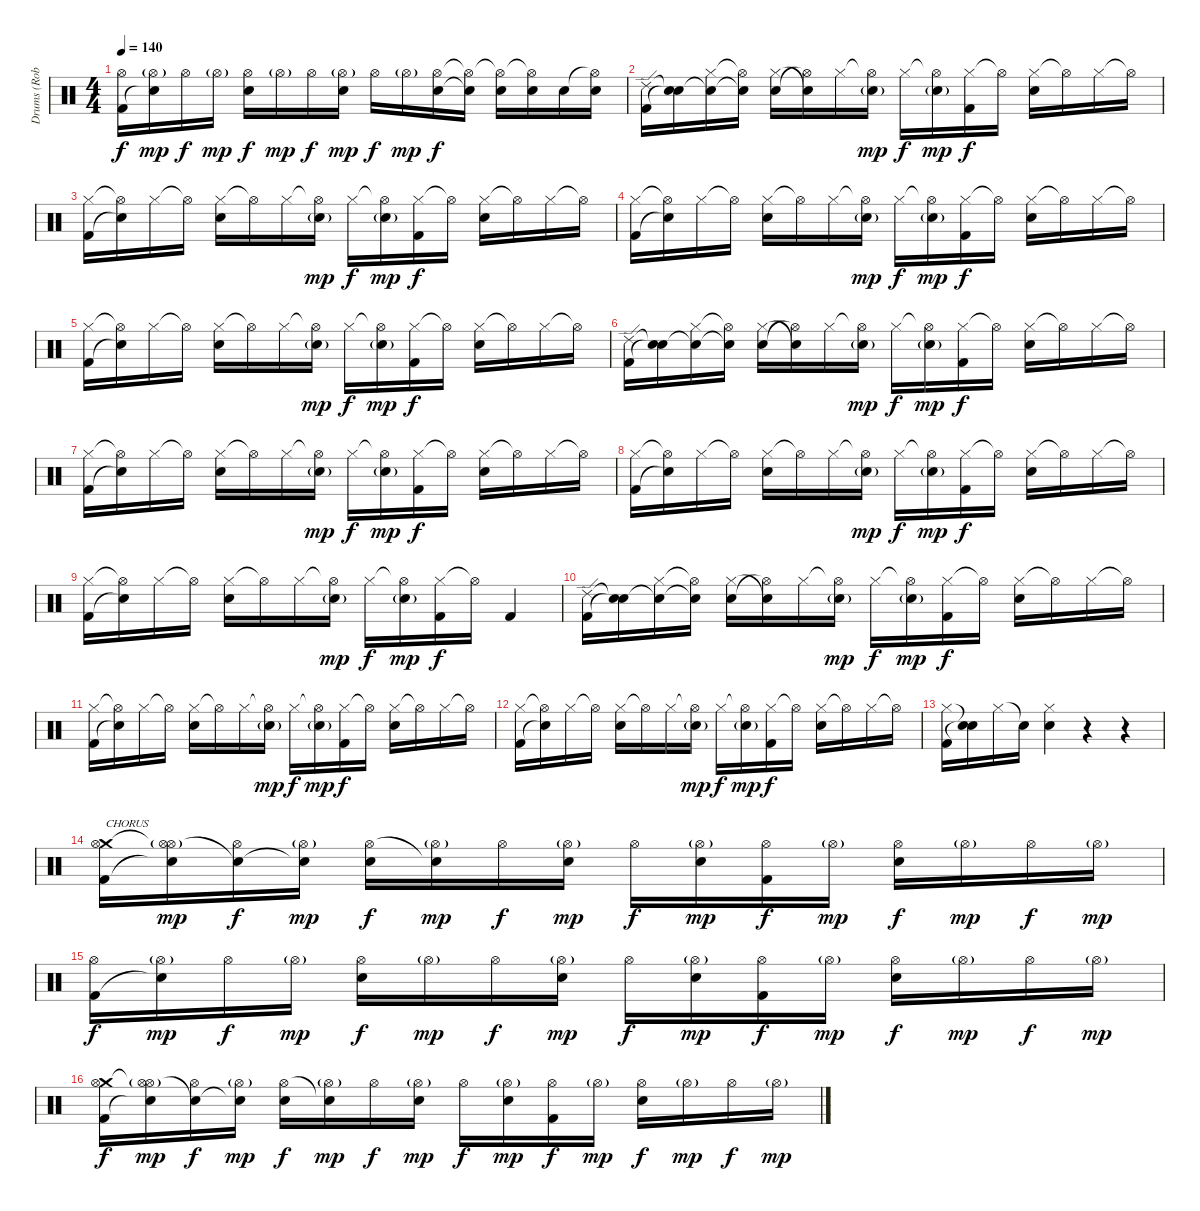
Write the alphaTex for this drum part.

\track ("Drums (Rob Bourdon)" "Drums (Rob") {instrument percussion}
\staff {score}
\articulation defaults
\ts (4 4)
\tempo 140
\clef neutral
\ks c
("Hi-Hat (open)" "Kick (hit) 2").16{dy f volume 14} ("Hi-Hat (open)"{g} "Snare (hit)"{t}).16{dy mp} "Hi-Hat (open)".16{dy f} "Hi-Hat (open)"{g}.16{dy mp} ("Hi-Hat (open)" "Electric Snare (hit)").16{dy f} "Hi-Hat (open)"{g}.16{dy mp} "Hi-Hat (open)".16{dy f} ("Hi-Hat (open)"{g} "Electric Snare (hit)").16{dy mp} "Hi-Hat (open)".16{dy f} "Hi-Hat (open)"{g}.16{dy mp} ("Hi-Hat (open)" "Electric Snare (hit)").16{dy f} ("Hi-Hat (open)"{t} "Snare (hit)"{t}).16 ("Hi-Hat (open)"{t} "Electric Snare (hit)").16 ("Hi-Hat (open)"{t} "Electric Snare (hit)").16 "Electric Snare (hit)".16 ("Hi-Hat (open)"{t} "Electric Snare (hit)").16 |
("Ride (edge) 2" "Kick (hit) 2").16{volume 14} ("Snare (hit)"{t} "Snare (hit)"{t}).16 ("Snare (hit)"{t} "Hi-Hat (closed)").16 ("Snare (hit)"{t} "Hi-Hat (open)"{t}).16 ("Hi-Hat (closed)" "Electric Snare (hit)").16 ("Snare (hit)"{t} "Hi-Hat (open)"{t}).16 "Hi-Hat (closed)".16 ("Hi-Hat (open)"{t} "Electric Snare (hit)"{g}).16{dy mp} "Hi-Hat (closed)".16{dy f} ("Hi-Hat (open)"{t} "Electric Snare (hit)"{g}).16{dy mp} ("Hi-Hat (closed)" "Kick (hit) 2").16{dy f} "Hi-Hat (open)"{t}.16 ("Hi-Hat (closed)" "Electric Snare (hit)").16 "Hi-Hat (open)"{t}.16 "Hi-Hat (closed)".16 "Hi-Hat (open)"{t}.16 |
("Hi-Hat (closed)" "Kick (hit) 2").16{volume 14} ("Hi-Hat (open)"{t} "Snare (hit)"{t}).16 "Hi-Hat (closed)".16 "Hi-Hat (open)"{t}.16 ("Hi-Hat (closed)" "Electric Snare (hit)").16 "Hi-Hat (open)"{t}.16 "Hi-Hat (closed)".16 ("Hi-Hat (open)"{t} "Electric Snare (hit)"{g}).16{dy mp} "Hi-Hat (closed)".16{dy f} ("Hi-Hat (open)"{t} "Electric Snare (hit)"{g}).16{dy mp} ("Hi-Hat (closed)" "Kick (hit) 2").16{dy f} "Hi-Hat (open)"{t}.16 ("Hi-Hat (closed)" "Electric Snare (hit)").16 "Hi-Hat (open)"{t}.16 "Hi-Hat (closed)".16 "Hi-Hat (open)"{t}.16 |
("Hi-Hat (closed)" "Kick (hit) 2").16{volume 14} ("Hi-Hat (open)"{t} "Snare (hit)"{t}).16 "Hi-Hat (closed)".16 "Hi-Hat (open)"{t}.16 ("Hi-Hat (closed)" "Electric Snare (hit)").16 "Hi-Hat (open)"{t}.16 "Hi-Hat (closed)".16 ("Hi-Hat (open)"{t} "Electric Snare (hit)"{g}).16{dy mp} "Hi-Hat (closed)".16{dy f} ("Hi-Hat (open)"{t} "Electric Snare (hit)"{g}).16{dy mp} ("Hi-Hat (closed)" "Kick (hit) 2").16{dy f} "Hi-Hat (open)"{t}.16 ("Hi-Hat (closed)" "Electric Snare (hit)").16 "Hi-Hat (open)"{t}.16 "Hi-Hat (closed)".16 "Hi-Hat (open)"{t}.16 |
("Hi-Hat (closed)" "Kick (hit) 2").16{volume 14} ("Hi-Hat (open)"{t} "Snare (hit)"{t}).16 "Hi-Hat (closed)".16 "Hi-Hat (open)"{t}.16 ("Hi-Hat (closed)" "Electric Snare (hit)").16 "Hi-Hat (open)"{t}.16 "Hi-Hat (closed)".16 ("Hi-Hat (open)"{t} "Electric Snare (hit)"{g}).16{dy mp} "Hi-Hat (closed)".16{dy f} ("Hi-Hat (open)"{t} "Electric Snare (hit)"{g}).16{dy mp} ("Hi-Hat (closed)" "Kick (hit) 2").16{dy f} "Hi-Hat (open)"{t}.16 ("Hi-Hat (closed)" "Electric Snare (hit)").16 "Hi-Hat (open)"{t}.16 "Hi-Hat (closed)".16 "Hi-Hat (open)"{t}.16 |
("Ride (edge) 2" "Kick (hit) 2").16{volume 14} ("Snare (hit)"{t} "Snare (hit)"{t}).16 ("Snare (hit)"{t} "Hi-Hat (closed)").16 ("Snare (hit)"{t} "Hi-Hat (open)"{t}).16 ("Hi-Hat (closed)" "Electric Snare (hit)").16 ("Snare (hit)"{t} "Hi-Hat (open)"{t}).16 "Hi-Hat (closed)".16 ("Hi-Hat (open)"{t} "Electric Snare (hit)"{g}).16{dy mp} "Hi-Hat (closed)".16{dy f} ("Hi-Hat (open)"{t} "Electric Snare (hit)"{g}).16{dy mp} ("Hi-Hat (closed)" "Kick (hit) 2").16{dy f} "Hi-Hat (open)"{t}.16 ("Hi-Hat (closed)" "Electric Snare (hit)").16 "Hi-Hat (open)"{t}.16 "Hi-Hat (closed)".16 "Hi-Hat (open)"{t}.16 |
("Hi-Hat (closed)" "Kick (hit) 2").16{volume 14} ("Hi-Hat (open)"{t} "Snare (hit)"{t}).16 "Hi-Hat (closed)".16 "Hi-Hat (open)"{t}.16 ("Hi-Hat (closed)" "Electric Snare (hit)").16 "Hi-Hat (open)"{t}.16 "Hi-Hat (closed)".16 ("Hi-Hat (open)"{t} "Electric Snare (hit)"{g}).16{dy mp} "Hi-Hat (closed)".16{dy f} ("Hi-Hat (open)"{t} "Electric Snare (hit)"{g}).16{dy mp} ("Hi-Hat (closed)" "Kick (hit) 2").16{dy f} "Hi-Hat (open)"{t}.16 ("Hi-Hat (closed)" "Electric Snare (hit)").16 "Hi-Hat (open)"{t}.16 "Hi-Hat (closed)".16 "Hi-Hat (open)"{t}.16 |
("Hi-Hat (closed)" "Kick (hit) 2").16{volume 14} ("Hi-Hat (open)"{t} "Snare (hit)"{t}).16 "Hi-Hat (closed)".16 "Hi-Hat (open)"{t}.16 ("Hi-Hat (closed)" "Electric Snare (hit)").16 "Hi-Hat (open)"{t}.16 "Hi-Hat (closed)".16 ("Hi-Hat (open)"{t} "Electric Snare (hit)"{g}).16{dy mp} "Hi-Hat (closed)".16{dy f} ("Hi-Hat (open)"{t} "Electric Snare (hit)"{g}).16{dy mp} ("Hi-Hat (closed)" "Kick (hit) 2").16{dy f} "Hi-Hat (open)"{t}.16 ("Hi-Hat (closed)" "Electric Snare (hit)").16 "Hi-Hat (open)"{t}.16 "Hi-Hat (closed)".16 "Hi-Hat (open)"{t}.16 |
("Hi-Hat (closed)" "Kick (hit) 2").16{volume 14} ("Hi-Hat (open)"{t} "Snare (hit)"{t}).16 "Hi-Hat (closed)".16 "Hi-Hat (open)"{t}.16 ("Hi-Hat (closed)" "Electric Snare (hit)").16 "Hi-Hat (open)"{t}.16 "Hi-Hat (closed)".16 ("Hi-Hat (open)"{t} "Electric Snare (hit)"{g}).16{dy mp} "Hi-Hat (closed)".16{dy f} ("Hi-Hat (open)"{t} "Electric Snare (hit)"{g}).16{dy mp} ("Hi-Hat (closed)" "Kick (hit) 2").16{dy f} "Hi-Hat (open)"{t}.16 "Kick (hit) 2".4 |
("Ride (edge) 2" "Kick (hit) 2").16{volume 14} ("Snare (hit)"{t} "Snare (hit)"{t}).16 ("Snare (hit)"{t} "Hi-Hat (closed)").16 ("Snare (hit)"{t} "Hi-Hat (open)"{t}).16 ("Hi-Hat (closed)" "Electric Snare (hit)").16 ("Snare (hit)"{t} "Hi-Hat (open)"{t}).16 "Hi-Hat (closed)".16 ("Hi-Hat (open)"{t} "Electric Snare (hit)"{g}).16{dy mp} "Hi-Hat (closed)".16{dy f} ("Hi-Hat (open)"{t} "Electric Snare (hit)"{g}).16{dy mp} ("Hi-Hat (closed)" "Kick (hit) 2").16{dy f} "Hi-Hat (open)"{t}.16 ("Hi-Hat (closed)" "Electric Snare (hit)").16 "Hi-Hat (open)"{t}.16 "Hi-Hat (closed)".16 "Hi-Hat (open)"{t}.16 |
("Hi-Hat (closed)" "Kick (hit) 2").16{volume 14} ("Hi-Hat (open)"{t} "Snare (hit)"{t}).16 "Hi-Hat (closed)".16 "Hi-Hat (open)"{t}.16 ("Hi-Hat (closed)" "Electric Snare (hit)").16 "Hi-Hat (open)"{t}.16 "Hi-Hat (closed)".16 ("Hi-Hat (open)"{t} "Electric Snare (hit)"{g}).16{dy mp} "Hi-Hat (closed)".16{dy f} ("Hi-Hat (open)"{t} "Electric Snare (hit)"{g}).16{dy mp} ("Hi-Hat (closed)" "Kick (hit) 2").16{dy f} "Hi-Hat (open)"{t}.16 ("Hi-Hat (closed)" "Electric Snare (hit)").16 "Hi-Hat (open)"{t}.16 "Hi-Hat (closed)".16 "Hi-Hat (open)"{t}.16 |
("Hi-Hat (closed)" "Kick (hit) 2").16{volume 14} ("Hi-Hat (open)"{t} "Snare (hit)"{t}).16 "Hi-Hat (closed)".16 "Hi-Hat (open)"{t}.16 ("Hi-Hat (closed)" "Electric Snare (hit)").16 "Hi-Hat (open)"{t}.16 "Hi-Hat (closed)".16 ("Hi-Hat (open)"{t} "Electric Snare (hit)"{g}).16{dy mp} "Hi-Hat (closed)".16{dy f} ("Hi-Hat (open)"{t} "Electric Snare (hit)"{g}).16{dy mp} ("Hi-Hat (closed)" "Kick (hit) 2").16{dy f} "Hi-Hat (open)"{t}.16 ("Hi-Hat (closed)" "Electric Snare (hit)").16 "Hi-Hat (open)"{t}.16 "Hi-Hat (closed)".16 "Hi-Hat (open)"{t}.16 |
("Hi-Hat (closed)" "Kick (hit) 2").16 ("Snare (hit)"{t} "Snare (hit)"{t}).16 "Hi-Hat (closed)".16 "Snare (hit)"{t}.16 ("Hi-Hat (closed)" "Electric Snare (hit)").4 r.4 r.4 |
("Crash medium (hit)" "Hi-Hat (open)" "Kick (hit) 2").16{txt "CHORUS" volume 14} ("Hi-Hat (open)"{t} "Hi-Hat (open)"{g} "Snare (hit)"{t}).16{dy mp} ("Snare (hit)"{t} "Hi-Hat (open)").16{dy f} ("Snare (hit)"{t} "Hi-Hat (open)"{g}).16{dy mp} ("Hi-Hat (open)" "Electric Snare (hit)").16{dy f} ("Snare (hit)"{t} "Hi-Hat (open)"{g}).16{dy mp} "Hi-Hat (open)".16{dy f} ("Hi-Hat (open)"{g} "Electric Snare (hit)").16{dy mp} "Hi-Hat (open)".16{dy f} ("Hi-Hat (open)"{g} "Electric Snare (hit)").16{dy mp} ("Hi-Hat (open)" "Kick (hit) 2").16{dy f} "Hi-Hat (open)"{g}.16{dy mp} ("Hi-Hat (open)" "Electric Snare (hit)").16{dy f} "Hi-Hat (open)"{g}.16{dy mp} "Hi-Hat (open)".16{dy f} "Hi-Hat (open)"{g}.16{dy mp} |
("Hi-Hat (open)" "Kick (hit) 2").16{dy f volume 14} ("Hi-Hat (open)"{g} "Snare (hit)"{t}).16{dy mp} "Hi-Hat (open)".16{dy f} "Hi-Hat (open)"{g}.16{dy mp} ("Hi-Hat (open)" "Electric Snare (hit)").16{dy f} "Hi-Hat (open)"{g}.16{dy mp} "Hi-Hat (open)".16{dy f} ("Hi-Hat (open)"{g} "Electric Snare (hit)").16{dy mp} "Hi-Hat (open)".16{dy f} ("Hi-Hat (open)"{g} "Electric Snare (hit)").16{dy mp} ("Hi-Hat (open)" "Kick (hit) 2").16{dy f} "Hi-Hat (open)"{g}.16{dy mp} ("Hi-Hat (open)" "Electric Snare (hit)").16{dy f} "Hi-Hat (open)"{g}.16{dy mp} "Hi-Hat (open)".16{dy f} "Hi-Hat (open)"{g}.16{dy mp} |
("Crash medium (hit)" "Hi-Hat (open)" "Kick (hit) 2").16{dy f volume 14} ("Hi-Hat (open)"{t} "Hi-Hat (open)"{g} "Snare (hit)"{t}).16{dy mp} ("Snare (hit)"{t} "Hi-Hat (open)").16{dy f} ("Snare (hit)"{t} "Hi-Hat (open)"{g}).16{dy mp} ("Hi-Hat (open)" "Electric Snare (hit)").16{dy f} ("Snare (hit)"{t} "Hi-Hat (open)"{g}).16{dy mp} "Hi-Hat (open)".16{dy f} ("Hi-Hat (open)"{g} "Electric Snare (hit)").16{dy mp} "Hi-Hat (open)".16{dy f} ("Hi-Hat (open)"{g} "Electric Snare (hit)").16{dy mp} ("Hi-Hat (open)" "Kick (hit) 2").16{dy f} "Hi-Hat (open)"{g}.16{dy mp} ("Hi-Hat (open)" "Electric Snare (hit)").16{dy f} "Hi-Hat (open)"{g}.16{dy mp} "Hi-Hat (open)".16{dy f} "Hi-Hat (open)"{g}.16{dy mp}
